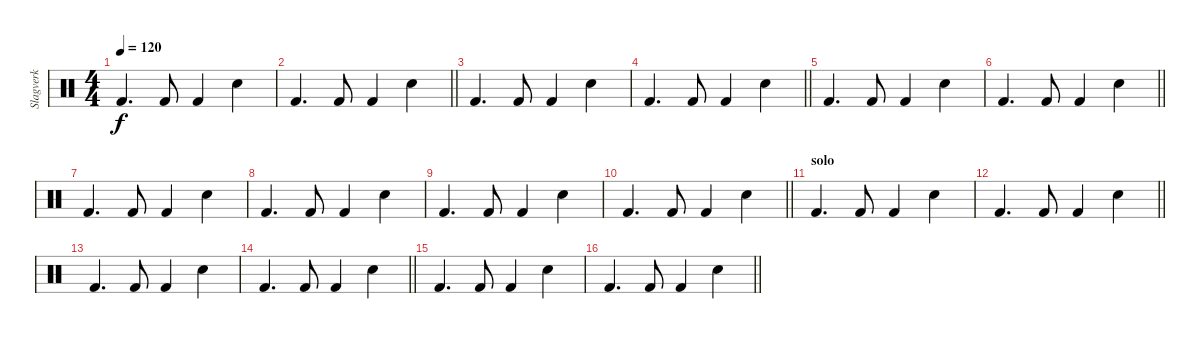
\track ("Slagverk" "Slagverk") {instrument percussion}
\staff {score}
\articulation defaults
\ts (4 4)
\tempo 120
\clef neutral
\ks c "Kick (hit) 2".4{d dy f} "Kick (hit) 2".8 "Kick (hit) 2".4 "Snare (hit) 2".4
|
\barLineRight lightlight "Kick (hit) 2".4{d} "Kick (hit) 2".8 "Kick (hit) 2".4 "Snare (hit) 2".4
|
"Kick (hit) 2".4{d} "Kick (hit) 2".8 "Kick (hit) 2".4 "Snare (hit) 2".4 |
\barLineRight lightlight "Kick (hit) 2".4{d} "Kick (hit) 2".8 "Kick (hit) 2".4 "Snare (hit) 2".4
|
"Kick (hit) 2".4{d} "Kick (hit) 2".8 "Kick (hit) 2".4 "Snare (hit) 2".4 |
\barLineRight lightlight "Kick (hit) 2".4{d} "Kick (hit) 2".8 "Kick (hit) 2".4 "Snare (hit) 2".4
|
"Kick (hit) 2".4{d} "Kick (hit) 2".8 "Kick (hit) 2".4 "Snare (hit) 2".4 |
"Kick (hit) 2".4{d} "Kick (hit) 2".8 "Kick (hit) 2".4 "Snare (hit) 2".4 |
"Kick (hit) 2".4{d} "Kick (hit) 2".8 "Kick (hit) 2".4 "Snare (hit) 2".4 |
\barLineRight lightlight "Kick (hit) 2".4{d} "Kick (hit) 2".8 "Kick (hit) 2".4 "Snare (hit) 2".4
|
\section ("" "solo")
"Kick (hit) 2".4{d} "Kick (hit) 2".8 "Kick (hit) 2".4 "Snare (hit) 2".4 |
\barLineRight lightlight "Kick (hit) 2".4{d} "Kick (hit) 2".8 "Kick (hit) 2".4 "Snare (hit) 2".4
|
"Kick (hit) 2".4{d} "Kick (hit) 2".8 "Kick (hit) 2".4 "Snare (hit) 2".4 |
\barLineRight lightlight "Kick (hit) 2".4{d} "Kick (hit) 2".8 "Kick (hit) 2".4 "Snare (hit) 2".4
|
"Kick (hit) 2".4{d} "Kick (hit) 2".8 "Kick (hit) 2".4 "Snare (hit) 2".4 |
\barLineRight lightlight "Kick (hit) 2".4{d} "Kick (hit) 2".8 "Kick (hit) 2".4 "Snare (hit) 2".4
